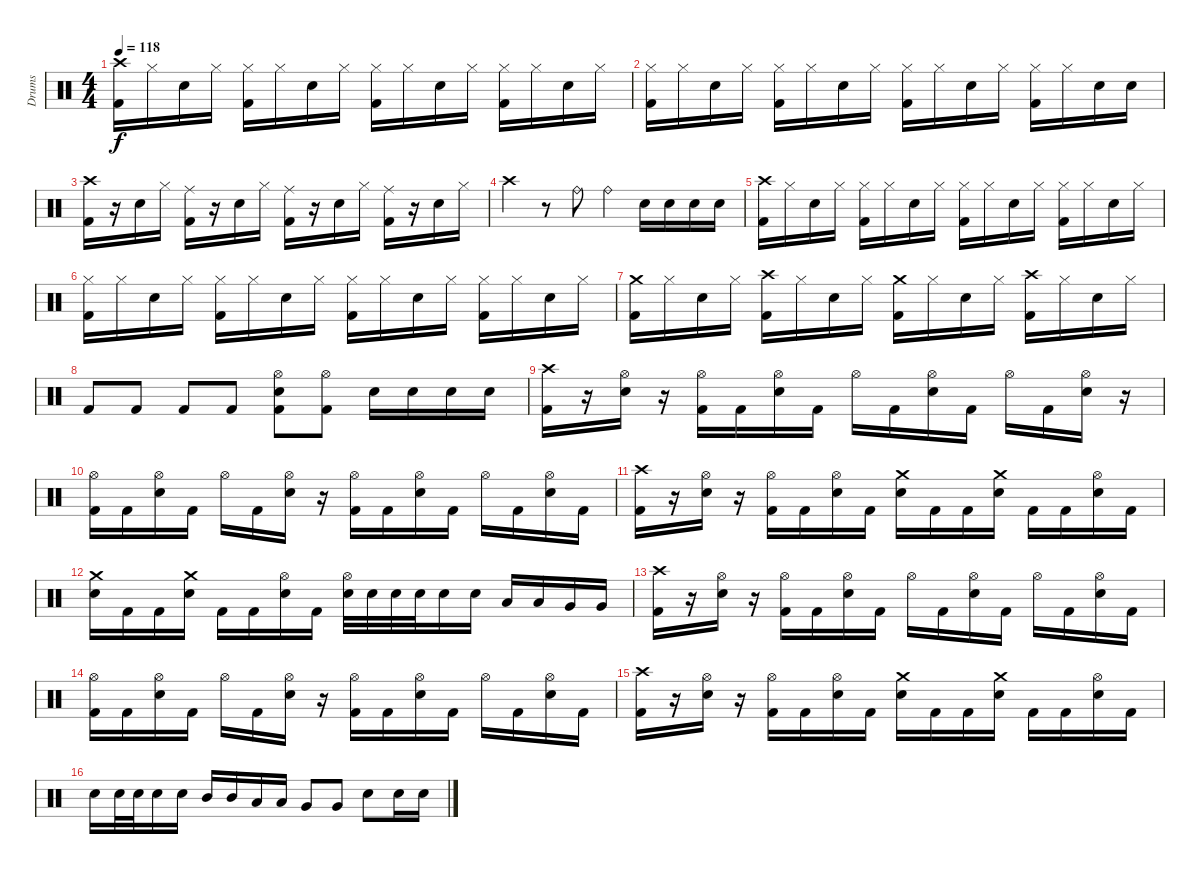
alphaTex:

\track ("Drums" "Drums") {instrument percussion}
\staff
\articulation defaults
\ts (4 4)
\tempo 118
\clef neutral
\ks c
("Crash high (hit)" "Kick (hit) 2").16{dy f} "Hi-Hat (closed)".16 "Snare (hit) 2".16 "Hi-Hat (closed)".16 ("Hi-Hat (closed)" "Kick (hit) 2").16 "Hi-Hat (closed)".16 "Snare (hit) 2".16 "Hi-Hat (closed)".16 ("Hi-Hat (closed)" "Kick (hit) 2").16 "Hi-Hat (closed)".16 "Snare (hit) 2".16 "Hi-Hat (closed)".16 ("Hi-Hat (closed)" "Kick (hit) 2").16 "Hi-Hat (closed)".16 "Snare (hit) 2".16 "Hi-Hat (closed)".16 |
("Hi-Hat (closed)" "Kick (hit) 2").16 "Hi-Hat (closed)".16 "Snare (hit) 2".16 "Hi-Hat (closed)".16 ("Hi-Hat (closed)" "Kick (hit) 2").16 "Hi-Hat (closed)".16 "Snare (hit) 2".16 "Hi-Hat (closed)".16 ("Hi-Hat (closed)" "Kick (hit) 2").16 "Hi-Hat (closed)".16 "Snare (hit) 2".16 "Hi-Hat (closed)".16 ("Hi-Hat (closed)" "Kick (hit) 2").16 "Hi-Hat (closed)".16 "Snare (hit) 2".16 "Snare (hit) 2".16 |
("Crash high (hit)" "Kick (hit) 2").16 r.16 "Snare (hit) 2".16 "Hi-Hat (closed)".16 ("Ride (middle)" "Kick (hit) 2").16 r.16 "Snare (hit) 2".16 "Hi-Hat (closed)".16 ("Ride (middle)" "Kick (hit) 2").16 r.16 "Snare (hit) 2".16 "Hi-Hat (closed)".16 ("Ride (middle)" "Kick (hit) 2").16 r.16 "Snare (hit) 2".16 "Hi-Hat (closed)".16 |
"Crash high (hit)".4 r.8 "Ride (bell)".8 "Ride (bell)".4 "Snare (hit) 2".16 "Snare (hit) 2".16 "Snare (hit) 2".16 "Snare (hit) 2".16 |
("Crash high (hit)" "Kick (hit) 2").16 "Hi-Hat (closed)".16 "Snare (hit) 2".16 "Hi-Hat (closed)".16 ("Hi-Hat (closed)" "Kick (hit) 2").16 "Hi-Hat (closed)".16 "Snare (hit) 2".16 "Hi-Hat (closed)".16 ("Hi-Hat (closed)" "Kick (hit) 2").16 "Hi-Hat (closed)".16 "Snare (hit) 2".16 "Hi-Hat (closed)".16 ("Hi-Hat (closed)" "Kick (hit) 2").16 "Hi-Hat (closed)".16 "Snare (hit) 2".16 "Hi-Hat (closed)".16 |
("Hi-Hat (closed)" "Kick (hit) 2").16 "Hi-Hat (closed)".16 "Snare (hit) 2".16 "Hi-Hat (closed)".16 ("Hi-Hat (closed)" "Kick (hit) 2").16 "Hi-Hat (closed)".16 "Snare (hit) 2".16 "Hi-Hat (closed)".16 ("Hi-Hat (closed)" "Kick (hit) 2").16 "Hi-Hat (closed)".16 "Snare (hit) 2".16 "Hi-Hat (closed)".16 ("Hi-Hat (closed)" "Kick (hit) 2").16 "Hi-Hat (closed)".16 "Snare (hit) 2".16 "Hi-Hat (closed)".16 |
("Crash medium (hit)" "Kick (hit) 2").16 "Hi-Hat (closed)".16 "Snare (hit) 2".16 "Hi-Hat (closed)".16 ("Crash high (hit)" "Kick (hit) 2").16 "Hi-Hat (closed)".16 "Snare (hit) 2".16 "Hi-Hat (closed)".16 ("Crash medium (hit)" "Kick (hit) 2").16 "Hi-Hat (closed)".16 "Snare (hit) 2".16 "Hi-Hat (closed)".16 ("Crash high (hit)" "Kick (hit) 2").16 "Hi-Hat (closed)".16 "Snare (hit) 2".16 "Hi-Hat (closed)".16 |
"Kick (hit) 2".8 "Kick (hit) 2".8 "Kick (hit) 2".8 "Kick (hit) 2".8 ("Hi-Hat (open)" "Snare (hit) 2" "Kick (hit) 2").8 ("Hi-Hat (open)" "Kick (hit) 2").8 "Snare (hit) 2".16 "Snare (hit) 2".16 "Snare (hit) 2".16 "Snare (hit) 2".16 |
("Crash high (hit)" "Kick (hit) 2").16 r.16 ("Hi-Hat (open)" "Snare (hit) 2").16 r.16 ("Hi-Hat (open)" "Kick (hit) 2").16 "Kick (hit) 2".16 ("Hi-Hat (open)" "Snare (hit) 2").16 "Kick (hit) 2".16 "Hi-Hat (open)".16 "Kick (hit) 2".16 ("Hi-Hat (open)" "Snare (hit) 2").16 "Kick (hit) 2".16 "Hi-Hat (open)".16 "Kick (hit) 2".16 ("Hi-Hat (open)" "Snare (hit) 2").16 r.16 |
("Hi-Hat (open)" "Kick (hit) 2").16 "Kick (hit) 2".16 ("Hi-Hat (open)" "Snare (hit) 2").16 "Kick (hit) 2".16 "Hi-Hat (open)".16 "Kick (hit) 2".16 ("Hi-Hat (open)" "Snare (hit) 2").16 r.16 ("Hi-Hat (open)" "Kick (hit) 2").16 "Kick (hit) 2".16 ("Hi-Hat (open)" "Snare (hit) 2").16 "Kick (hit) 2".16 "Hi-Hat (open)".16 "Kick (hit) 2".16 ("Hi-Hat (open)" "Snare (hit) 2").16 "Kick (hit) 2".16 |
("Crash high (hit)" "Kick (hit) 2").16 r.16 ("Hi-Hat (open)" "Snare (hit) 2").16 r.16 ("Hi-Hat (open)" "Kick (hit) 2").16 "Kick (hit) 2".16 ("Hi-Hat (open)" "Snare (hit) 2").16 "Kick (hit) 2".16 ("Crash medium (hit)" "Snare (hit) 2").16 "Kick (hit) 2".16 "Kick (hit) 2".16 ("Crash medium (hit)" "Snare (hit) 2").16 "Kick (hit) 2".16 "Kick (hit) 2".16 ("Hi-Hat (open)" "Snare (hit) 2").16 "Kick (hit) 2".16 |
("Crash medium (hit)" "Snare (hit) 2").16 "Kick (hit) 2".16 "Kick (hit) 2".16 ("Crash medium (hit)" "Snare (hit) 2").16 "Kick (hit) 2".16 "Kick (hit) 2".16 ("Hi-Hat (open)" "Snare (hit) 2").16 "Kick (hit) 2".16 ("Hi-Hat (open)" "Snare (hit) 2").32 "Snare (hit) 2".32 "Snare (hit) 2".32 "Snare (hit) 2".32 "Snare (hit) 2".16 "Snare (hit) 2".16 "Low Tom (hit)".16 "Low Tom (hit)".16 "Very Low Tom (hit)".16 "Very Low Tom (hit)".16 |
("Crash high (hit)" "Kick (hit) 2").16 r.16 ("Hi-Hat (open)" "Snare (hit) 2").16 r.16 ("Hi-Hat (open)" "Kick (hit) 2").16 "Kick (hit) 2".16 ("Hi-Hat (open)" "Snare (hit) 2").16 "Kick (hit) 2".16 "Hi-Hat (open)".16 "Kick (hit) 2".16 ("Hi-Hat (open)" "Snare (hit) 2").16 "Kick (hit) 2".16 "Hi-Hat (open)".16 "Kick (hit) 2".16 ("Hi-Hat (open)" "Snare (hit) 2").16 "Kick (hit) 2".16 |
("Hi-Hat (open)" "Kick (hit) 2").16 "Kick (hit) 2".16 ("Hi-Hat (open)" "Snare (hit) 2").16 "Kick (hit) 2".16 "Hi-Hat (open)".16 "Kick (hit) 2".16 ("Hi-Hat (open)" "Snare (hit) 2").16 r.16 ("Hi-Hat (open)" "Kick (hit) 2").16 "Kick (hit) 2".16 ("Hi-Hat (open)" "Snare (hit) 2").16 "Kick (hit) 2".16 "Hi-Hat (open)".16 "Kick (hit) 2".16 ("Hi-Hat (open)" "Snare (hit) 2").16 "Kick (hit) 2".16 |
("Crash high (hit)" "Kick (hit) 2").16 r.16 ("Hi-Hat (open)" "Snare (hit) 2").16 r.16 ("Hi-Hat (open)" "Kick (hit) 2").16 "Kick (hit) 2".16 ("Hi-Hat (open)" "Snare (hit) 2").16 "Kick (hit) 2".16 ("Crash medium (hit)" "Snare (hit) 2").16 "Kick (hit) 2".16 "Kick (hit) 2".16 ("Crash medium (hit)" "Snare (hit) 2").16 "Kick (hit) 2".16 "Kick (hit) 2".16 ("Hi-Hat (open)" "Snare (hit) 2").16 "Kick (hit) 2".16 |
"Snare (hit) 2".16 "Snare (hit) 2".32 "Snare (hit) 2".32 "Snare (hit) 2".16 "Snare (hit) 2".16 "Mid Tom (hit)".16 "Mid Tom (hit)".16 "Low Tom (hit)".16 "Low Tom (hit)".16 "Very Low Tom (hit)".8 "Very Low Tom (hit)".8 "Snare (hit) 2".8 "Snare (hit) 2".16 "Snare (hit) 2".16
